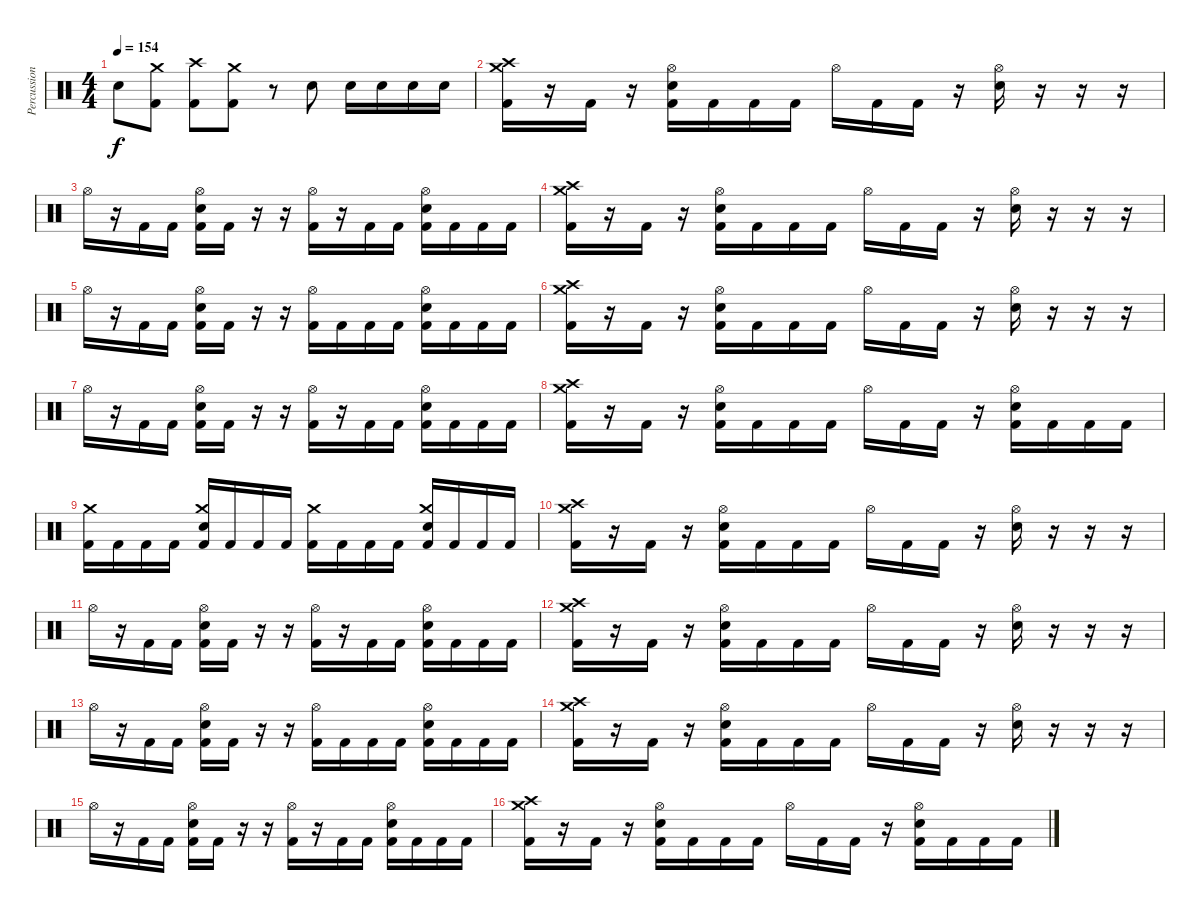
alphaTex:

\track ("Percussion" "Percussion") {instrument percussion bank 128}
\staff {score}
\articulation defaults
\ts (4 4)
\tempo 154
\clef neutral
\ks c "Snare (hit) 2".8{dy f}
("Crash medium (hit)" "Kick (hit) 2").8 ("Crash high (hit)" "Kick (hit) 2").8 ("Crash medium (hit)" "Kick (hit) 2").8 r.8 "Snare (hit) 2".8 "Snare (hit) 2".16 "Snare (hit) 2".16 "Snare (hit) 2".16 "Snare (hit) 2".16 |
("Crash high (hit)" "Crash medium (hit)" "Kick (hit) 2").16 r.16 "Kick (hit) 2".16 r.16 ("Hi-Hat (open)" "Snare (hit) 2" "Kick (hit) 2").16 "Kick (hit) 2".16 "Kick (hit) 2".16 "Kick (hit) 2".16 "Hi-Hat (open)".16 "Kick (hit) 2".16 "Kick (hit) 2".16 r.16 ("Hi-Hat (open)" "Snare (hit) 2").16 r.16 r.16 r.16 |
"Hi-Hat (open)".16 r.16 "Kick (hit) 2".16 "Kick (hit) 2".16 ("Hi-Hat (open)" "Snare (hit) 2" "Kick (hit) 2").16 "Kick (hit) 2".16 r.16 r.16 ("Hi-Hat (open)" "Kick (hit) 2").16 r.16 "Kick (hit) 2".16 "Kick (hit) 2".16 ("Hi-Hat (open)" "Snare (hit) 2" "Kick (hit) 2").16 "Kick (hit) 2".16 "Kick (hit) 2".16 "Kick (hit) 2".16 |
("Crash high (hit)" "Crash medium (hit)" "Kick (hit) 2").16 r.16 "Kick (hit) 2".16 r.16 ("Hi-Hat (open)" "Snare (hit) 2" "Kick (hit) 2").16 "Kick (hit) 2".16 "Kick (hit) 2".16 "Kick (hit) 2".16 "Hi-Hat (open)".16 "Kick (hit) 2".16 "Kick (hit) 2".16 r.16 ("Hi-Hat (open)" "Snare (hit) 2").16 r.16 r.16 r.16 |
"Hi-Hat (open)".16 r.16 "Kick (hit) 2".16 "Kick (hit) 2".16 ("Hi-Hat (open)" "Snare (hit) 2" "Kick (hit) 2").16 "Kick (hit) 2".16 r.16 r.16 ("Hi-Hat (open)" "Kick (hit) 2").16 "Kick (hit) 2".16 "Kick (hit) 2".16 "Kick (hit) 2".16 ("Hi-Hat (open)" "Snare (hit) 2" "Kick (hit) 2").16 "Kick (hit) 2".16 "Kick (hit) 2".16 "Kick (hit) 2".16 |
("Crash high (hit)" "Crash medium (hit)" "Kick (hit) 2").16 r.16 "Kick (hit) 2".16 r.16 ("Hi-Hat (open)" "Snare (hit) 2" "Kick (hit) 2").16 "Kick (hit) 2".16 "Kick (hit) 2".16 "Kick (hit) 2".16 "Hi-Hat (open)".16 "Kick (hit) 2".16 "Kick (hit) 2".16 r.16 ("Hi-Hat (open)" "Snare (hit) 2").16 r.16 r.16 r.16 |
"Hi-Hat (open)".16 r.16 "Kick (hit) 2".16 "Kick (hit) 2".16 ("Hi-Hat (open)" "Snare (hit) 2" "Kick (hit) 2").16 "Kick (hit) 2".16 r.16 r.16 ("Hi-Hat (open)" "Kick (hit) 2").16 r.16 "Kick (hit) 2".16 "Kick (hit) 2".16 ("Hi-Hat (open)" "Snare (hit) 2" "Kick (hit) 2").16 "Kick (hit) 2".16 "Kick (hit) 2".16 "Kick (hit) 2".16 |
("Crash high (hit)" "Crash medium (hit)" "Kick (hit) 2").16 r.16 "Kick (hit) 2".16 r.16 ("Hi-Hat (open)" "Snare (hit) 2" "Kick (hit) 2").16 "Kick (hit) 2".16 "Kick (hit) 2".16 "Kick (hit) 2".16 "Hi-Hat (open)".16 "Kick (hit) 2".16 "Kick (hit) 2".16 r.16 ("Hi-Hat (open)" "Snare (hit) 2" "Kick (hit) 2").16 "Kick (hit) 2".16 "Kick (hit) 2".16 "Kick (hit) 2".16 |
("Crash medium (hit)" "Kick (hit) 2").16 "Kick (hit) 2".16 "Kick (hit) 2".16 "Kick (hit) 2".16 ("Crash medium (hit)" "Snare (hit) 2" "Kick (hit) 2").16 "Kick (hit) 2".16 "Kick (hit) 2".16 "Kick (hit) 2".16 ("Crash medium (hit)" "Kick (hit) 2").16 "Kick (hit) 2".16 "Kick (hit) 2".16 "Kick (hit) 2".16 ("Crash medium (hit)" "Snare (hit) 2" "Kick (hit) 2").16 "Kick (hit) 2".16 "Kick (hit) 2".16 "Kick (hit) 2".16 |
("Crash high (hit)" "Crash medium (hit)" "Kick (hit) 2").16 r.16 "Kick (hit) 2".16 r.16 ("Hi-Hat (open)" "Snare (hit) 2" "Kick (hit) 2").16 "Kick (hit) 2".16 "Kick (hit) 2".16 "Kick (hit) 2".16 "Hi-Hat (open)".16 "Kick (hit) 2".16 "Kick (hit) 2".16 r.16 ("Hi-Hat (open)" "Snare (hit) 2").16 r.16 r.16 r.16 |
"Hi-Hat (open)".16 r.16 "Kick (hit) 2".16 "Kick (hit) 2".16 ("Hi-Hat (open)" "Snare (hit) 2" "Kick (hit) 2").16 "Kick (hit) 2".16 r.16 r.16 ("Hi-Hat (open)" "Kick (hit) 2").16 r.16 "Kick (hit) 2".16 "Kick (hit) 2".16 ("Hi-Hat (open)" "Snare (hit) 2" "Kick (hit) 2").16 "Kick (hit) 2".16 "Kick (hit) 2".16 "Kick (hit) 2".16 |
("Crash high (hit)" "Crash medium (hit)" "Kick (hit) 2").16 r.16 "Kick (hit) 2".16 r.16 ("Hi-Hat (open)" "Snare (hit) 2" "Kick (hit) 2").16 "Kick (hit) 2".16 "Kick (hit) 2".16 "Kick (hit) 2".16 "Hi-Hat (open)".16 "Kick (hit) 2".16 "Kick (hit) 2".16 r.16 ("Hi-Hat (open)" "Snare (hit) 2").16 r.16 r.16 r.16 |
"Hi-Hat (open)".16 r.16 "Kick (hit) 2".16 "Kick (hit) 2".16 ("Hi-Hat (open)" "Snare (hit) 2" "Kick (hit) 2").16 "Kick (hit) 2".16 r.16 r.16 ("Hi-Hat (open)" "Kick (hit) 2").16 "Kick (hit) 2".16 "Kick (hit) 2".16 "Kick (hit) 2".16 ("Hi-Hat (open)" "Snare (hit) 2" "Kick (hit) 2").16 "Kick (hit) 2".16 "Kick (hit) 2".16 "Kick (hit) 2".16 |
("Crash high (hit)" "Crash medium (hit)" "Kick (hit) 2").16 r.16 "Kick (hit) 2".16 r.16 ("Hi-Hat (open)" "Snare (hit) 2" "Kick (hit) 2").16 "Kick (hit) 2".16 "Kick (hit) 2".16 "Kick (hit) 2".16 "Hi-Hat (open)".16 "Kick (hit) 2".16 "Kick (hit) 2".16 r.16 ("Hi-Hat (open)" "Snare (hit) 2").16 r.16 r.16 r.16 |
"Hi-Hat (open)".16 r.16 "Kick (hit) 2".16 "Kick (hit) 2".16 ("Hi-Hat (open)" "Snare (hit) 2" "Kick (hit) 2").16 "Kick (hit) 2".16 r.16 r.16 ("Hi-Hat (open)" "Kick (hit) 2").16 r.16 "Kick (hit) 2".16 "Kick (hit) 2".16 ("Hi-Hat (open)" "Snare (hit) 2" "Kick (hit) 2").16 "Kick (hit) 2".16 "Kick (hit) 2".16 "Kick (hit) 2".16 |
("Crash high (hit)" "Crash medium (hit)" "Kick (hit) 2").16 r.16 "Kick (hit) 2".16 r.16 ("Hi-Hat (open)" "Snare (hit) 2" "Kick (hit) 2").16 "Kick (hit) 2".16 "Kick (hit) 2".16 "Kick (hit) 2".16 "Hi-Hat (open)".16 "Kick (hit) 2".16 "Kick (hit) 2".16 r.16 ("Hi-Hat (open)" "Snare (hit) 2" "Kick (hit) 2").16 "Kick (hit) 2".16 "Kick (hit) 2".16 "Kick (hit) 2".16
